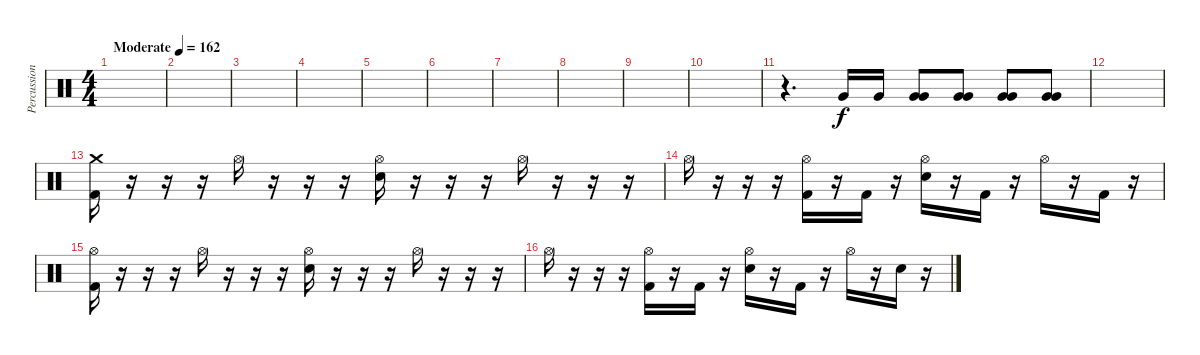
\track ("Percussion" "Percussion") {instrument percussion}
\staff {score}
\articulation defaults
\ts (4 4)
\tempo (162 "Moderate")
\clef neutral
\ks c
|
|
|
|
|
|
|
|
|
|
r.4{d} "Very Low Tom (hit)".16 "Very Low Tom (hit)".16 ("Very Low Tom (hit)" "Very Low Tom (hit)").8 ("Very Low Tom (hit)" "Very Low Tom (hit)").8 ("Very Low Tom (hit)" "Very Low Tom (hit)").8 ("Very Low Tom (hit)" "Very Low Tom (hit)").8 |
|
("Crash medium (hit)" "Kick (hit) 2").16 r.16 r.16 r.16 "Hi-Hat (open)".16 r.16 r.16 r.16 ("Hi-Hat (open)" "Electric Snare (hit)").16 r.16 r.16 r.16 "Hi-Hat (open)".16 r.16 r.16 r.16 |
"Hi-Hat (open)".16 r.16 r.16 r.16 ("Hi-Hat (open)" "Kick (hit) 2").16 r.16 "Kick (hit) 2".16 r.16 ("Hi-Hat (open)" "Electric Snare (hit)").16 r.16 "Kick (hit) 2".16 r.16 "Hi-Hat (open)".16 r.16 "Kick (hit) 2".16 r.16 |
("Hi-Hat (open)" "Kick (hit) 2").16 r.16 r.16 r.16 "Hi-Hat (open)".16 r.16 r.16 r.16 ("Hi-Hat (open)" "Electric Snare (hit)").16 r.16 r.16 r.16 "Hi-Hat (open)".16 r.16 r.16 r.16 |
"Hi-Hat (open)".16 r.16 r.16 r.16 ("Hi-Hat (open)" "Kick (hit) 2").16 r.16 "Kick (hit) 2".16 r.16 ("Hi-Hat (open)" "Electric Snare (hit)").16 r.16 "Kick (hit) 2".16 r.16 "Hi-Hat (open)".16 r.16 "Electric Snare (hit)".16 r.16
